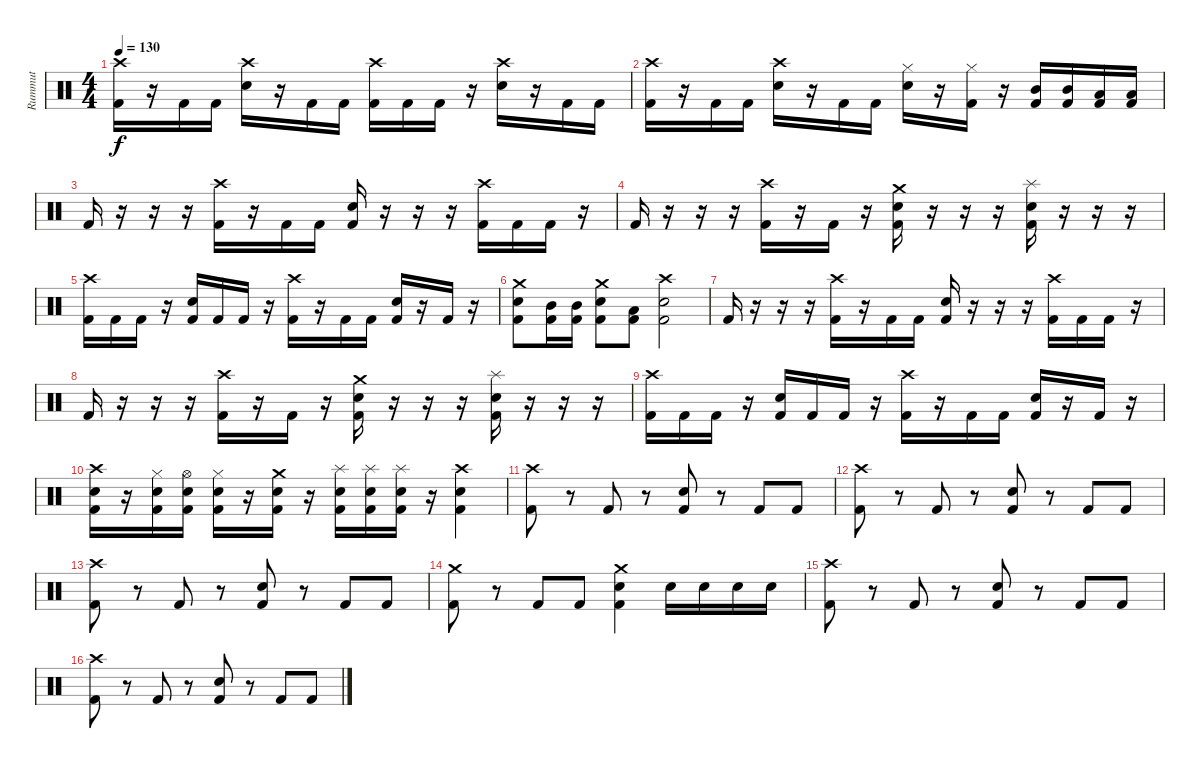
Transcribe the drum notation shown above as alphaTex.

\track ("Rummut" "Rummut") {instrument percussion}
\staff {score}
\articulation defaults
\ts (4 4)
\tempo 130
\clef neutral
\ks c
("Crash high (hit)" "Kick (hit) 2").16{dy f} r.16 "Kick (hit) 2".16 "Kick (hit) 2".16 ("Crash high (hit)" "Snare (hit) 2").16 r.16 "Kick (hit) 2".16 "Kick (hit) 2".16 ("Crash high (hit)" "Kick (hit) 2").16 "Kick (hit) 2".16 "Kick (hit) 2".16 r.16 ("Crash high (hit)" "Snare (hit) 2").16 r.16 "Kick (hit) 2".16 "Kick (hit) 2".16 |
("Crash high (hit)" "Kick (hit) 2").16 r.16 "Kick (hit) 2".16 "Kick (hit) 2".16 ("Crash high (hit)" "Snare (hit) 2").16 r.16 "Kick (hit) 2".16 "Kick (hit) 2".16 ("Hi-Hat (closed)" "Snare (hit) 2").16 r.16 ("Hi-Hat (closed)" "Kick (hit) 2").16 r.16 ("Mid Tom (hit)" "Kick (hit) 2").16 ("Mid Tom (hit)" "Kick (hit) 2").16 ("Low Tom (hit)" "Kick (hit) 2").16 ("Low Tom (hit)" "Kick (hit) 2").16 |
"Kick (hit) 2".16 r.16 r.16 r.16 ("Crash high (hit)" "Kick (hit) 2").16 r.16 "Kick (hit) 2".16 "Kick (hit) 2".16 ("Snare (hit) 2" "Kick (hit) 2").16 r.16 r.16 r.16 ("Crash high (hit)" "Kick (hit) 2").16 "Kick (hit) 2".16 "Kick (hit) 2".16 r.16 |
"Kick (hit) 2".16 r.16 r.16 r.16 ("Crash high (hit)" "Kick (hit) 2").16 r.16 "Kick (hit) 2".16 r.16 ("Crash medium (hit)" "Snare (hit) 2" "Kick (hit) 2").16 r.16 r.16 r.16 ("Splash (hit)" "Snare (hit) 2" "Kick (hit) 2").16 r.16 r.16 r.16 |
("Crash high (hit)" "Kick (hit) 2").16 "Kick (hit) 2".16 "Kick (hit) 2".16 r.16 ("Snare (hit) 2" "Kick (hit) 2").16 "Kick (hit) 2".16 "Kick (hit) 2".16 r.16 ("Crash high (hit)" "Kick (hit) 2").16 r.16 "Kick (hit) 2".16 "Kick (hit) 2".16 ("Snare (hit) 2" "Kick (hit) 2").16 r.16 "Kick (hit) 2".16 r.16 |
("Crash medium (hit)" "Snare (hit) 2" "Kick (hit) 2").8 ("Mid Tom (hit)" "Kick (hit) 2").16 ("Mid Tom (hit)" "Kick (hit) 2").16 ("Crash medium (hit)" "Snare (hit) 2" "Kick (hit) 2").8 ("Low Tom (hit)" "Kick (hit) 2").8 ("Crash high (hit)" "Snare (hit) 2" "Kick (hit) 2").2 |
"Kick (hit) 2".16 r.16 r.16 r.16 ("Crash high (hit)" "Kick (hit) 2").16 r.16 "Kick (hit) 2".16 "Kick (hit) 2".16 ("Snare (hit) 2" "Kick (hit) 2").16 r.16 r.16 r.16 ("Crash high (hit)" "Kick (hit) 2").16 "Kick (hit) 2".16 "Kick (hit) 2".16 r.16 |
"Kick (hit) 2".16 r.16 r.16 r.16 ("Crash high (hit)" "Kick (hit) 2").16 r.16 "Kick (hit) 2".16 r.16 ("Crash medium (hit)" "Snare (hit) 2" "Kick (hit) 2").16 r.16 r.16 r.16 ("Splash (hit)" "Snare (hit) 2" "Kick (hit) 2").16 r.16 r.16 r.16 |
("Crash high (hit)" "Kick (hit) 2").16 "Kick (hit) 2".16 "Kick (hit) 2".16 r.16 ("Snare (hit) 2" "Kick (hit) 2").16 "Kick (hit) 2".16 "Kick (hit) 2".16 r.16 ("Crash high (hit)" "Kick (hit) 2").16 r.16 "Kick (hit) 2".16 "Kick (hit) 2".16 ("Snare (hit) 2" "Kick (hit) 2").16 r.16 "Kick (hit) 2".16 r.16 |
("Crash high (hit)" "Snare (hit) 2" "Kick (hit) 2").16 r.16 ("Hi-Hat (closed)" "Snare (hit) 2" "Kick (hit) 2").16 ("Hi-Hat (open)" "Snare (hit) 2" "Kick (hit) 2").16 ("Hi-Hat (closed)" "Snare (hit) 2" "Kick (hit) 2").16 r.16 ("Crash medium (hit)" "Snare (hit) 2" "Kick (hit) 2").16 r.16 ("Splash (hit)" "Snare (hit) 2" "Kick (hit) 2").16 ("Splash (hit)" "Snare (hit) 2" "Kick (hit) 2").16 ("Splash (hit)" "Snare (hit) 2" "Kick (hit) 2").16 r.16 ("Crash high (hit)" "Snare (hit) 2" "Kick (hit) 2").4 |
("Crash high (hit)" "Kick (hit) 2").8 r.8 "Kick (hit) 2".8 r.8 ("Snare (hit) 2" "Kick (hit) 2").8 r.8 "Kick (hit) 2".8 "Kick (hit) 2".8 |
("Crash high (hit)" "Kick (hit) 2").8 r.8 "Kick (hit) 2".8 r.8 ("Snare (hit) 2" "Kick (hit) 2").8 r.8 "Kick (hit) 2".8 "Kick (hit) 2".8 |
("Crash high (hit)" "Kick (hit) 2").8 r.8 "Kick (hit) 2".8 r.8 ("Snare (hit) 2" "Kick (hit) 2").8 r.8 "Kick (hit) 2".8 "Kick (hit) 2".8 |
("Crash medium (hit)" "Kick (hit) 2").8 r.8 "Kick (hit) 2".8 "Kick (hit) 2".8 ("Crash medium (hit)" "Snare (hit) 2" "Kick (hit) 2").4 "Snare (hit) 2".16 "Snare (hit) 2".16 "Snare (hit) 2".16 "Snare (hit) 2".16 |
("Crash high (hit)" "Kick (hit) 2").8 r.8 "Kick (hit) 2".8 r.8 ("Snare (hit) 2" "Kick (hit) 2").8 r.8 "Kick (hit) 2".8 "Kick (hit) 2".8 |
("Crash high (hit)" "Kick (hit) 2").8 r.8 "Kick (hit) 2".8 r.8 ("Snare (hit) 2" "Kick (hit) 2").8 r.8 "Kick (hit) 2".8 "Kick (hit) 2".8
